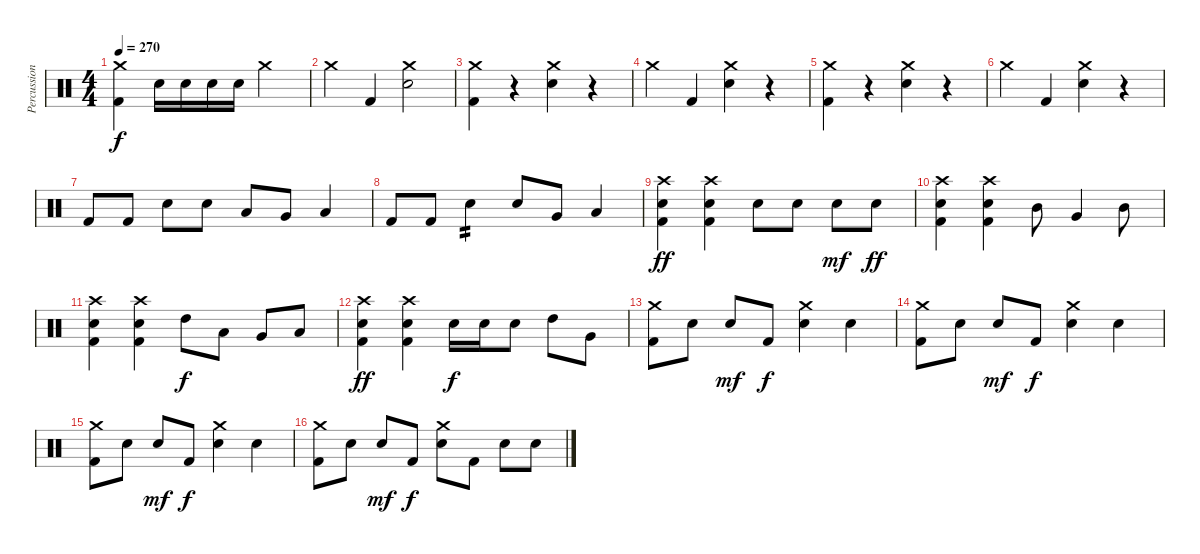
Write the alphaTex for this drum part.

\track ("Percussion" "Percussion") {instrument percussion}
\staff {score}
\articulation defaults
\ts (4 4)
\tempo 270
\clef neutral
\ks c
("Crash medium (hit)" "Kick (hit) 2").4{dy f} "Electric Snare (hit)".16 "Electric Snare (hit)".16 "Electric Snare (hit)".16 "Electric Snare (hit)".16 "Crash medium (hit)".2 |
"Crash medium (hit)".4 "Kick (hit) 2".4 ("Crash medium (hit)" "Electric Snare (hit)").2 |
("Crash medium (hit)" "Kick (hit) 2").4 r.4 ("Crash medium (hit)" "Electric Snare (hit)").4 r.4 |
"Crash medium (hit)".4 "Kick (hit) 2".4 ("Crash medium (hit)" "Electric Snare (hit)").4 r.4 |
("Crash medium (hit)" "Kick (hit) 2").4 r.4 ("Crash medium (hit)" "Electric Snare (hit)").4 r.4 |
"Crash medium (hit)".4 "Kick (hit) 2".4 ("Crash medium (hit)" "Electric Snare (hit)").4 r.4 |
"Kick (hit) 2".8 "Kick (hit) 2".8 "Electric Snare (hit)".8 "Electric Snare (hit)".8 "Low Tom (hit)".8 "Very Low Tom (hit)".8 "Low Floor Tom (hit)".4 |
"Kick (hit) 2".8 "Kick (hit) 2".8 "Electric Snare (hit)".4{tp 2} "Electric Snare (hit)".8 "Very Low Tom (hit)".8 "Low Floor Tom (hit)".4 |
("Crash high (hit)" "Electric Snare (hit)" "Kick (hit) 2").4{dy ff} ("Crash high (hit)" "Electric Snare (hit)" "Kick (hit) 2").4 "Electric Snare (hit)".8 "Electric Snare (hit)".8 "Electric Snare (hit)".8{dy mf} "Electric Snare (hit)".8{dy ff} |
("Crash high (hit)" "Electric Snare (hit)" "Kick (hit) 2").4 ("Crash high (hit)" "Electric Snare (hit)" "Kick (hit) 2").4 "Mid Tom (hit)".8 "Very Low Tom (hit)".4 "Mid Tom (hit)".8 |
("Crash high (hit)" "Electric Snare (hit)" "Kick (hit) 2").4 ("Crash high (hit)" "Electric Snare (hit)" "Kick (hit) 2").4 "High Tom (hit)".8{dy f} "Low Tom (hit)".8 "Very Low Tom (hit)".8 "Low Floor Tom (hit)".8 |
("Crash high (hit)" "Electric Snare (hit)" "Kick (hit) 2").4{dy ff} ("Crash high (hit)" "Electric Snare (hit)" "Kick (hit) 2").4 "Electric Snare (hit)".16{dy f} "Electric Snare (hit)".16 "Electric Snare (hit)".8 "High Tom (hit)".8 "Very Low Tom (hit)".8 |
("Crash medium (hit)" "Kick (hit) 2").8 "Electric Snare (hit)".8 "Electric Snare (hit)".8{dy mf} "Kick (hit) 2".8{dy f} ("Crash medium (hit)" "Electric Snare (hit)").4 "Electric Snare (hit)".4 |
("Crash medium (hit)" "Kick (hit) 2").8 "Electric Snare (hit)".8 "Electric Snare (hit)".8{dy mf} "Kick (hit) 2".8{dy f} ("Crash medium (hit)" "Electric Snare (hit)").4 "Electric Snare (hit)".4 |
("Crash medium (hit)" "Kick (hit) 2").8 "Electric Snare (hit)".8 "Electric Snare (hit)".8{dy mf} "Kick (hit) 2".8{dy f} ("Crash medium (hit)" "Electric Snare (hit)").4 "Electric Snare (hit)".4 |
("Crash medium (hit)" "Kick (hit) 2").8 "Electric Snare (hit)".8 "Electric Snare (hit)".8{dy mf} "Kick (hit) 2".8{dy f} ("Crash medium (hit)" "Electric Snare (hit)").8 "Kick (hit) 2".8 "Electric Snare (hit)".8 "Electric Snare (hit)".8
